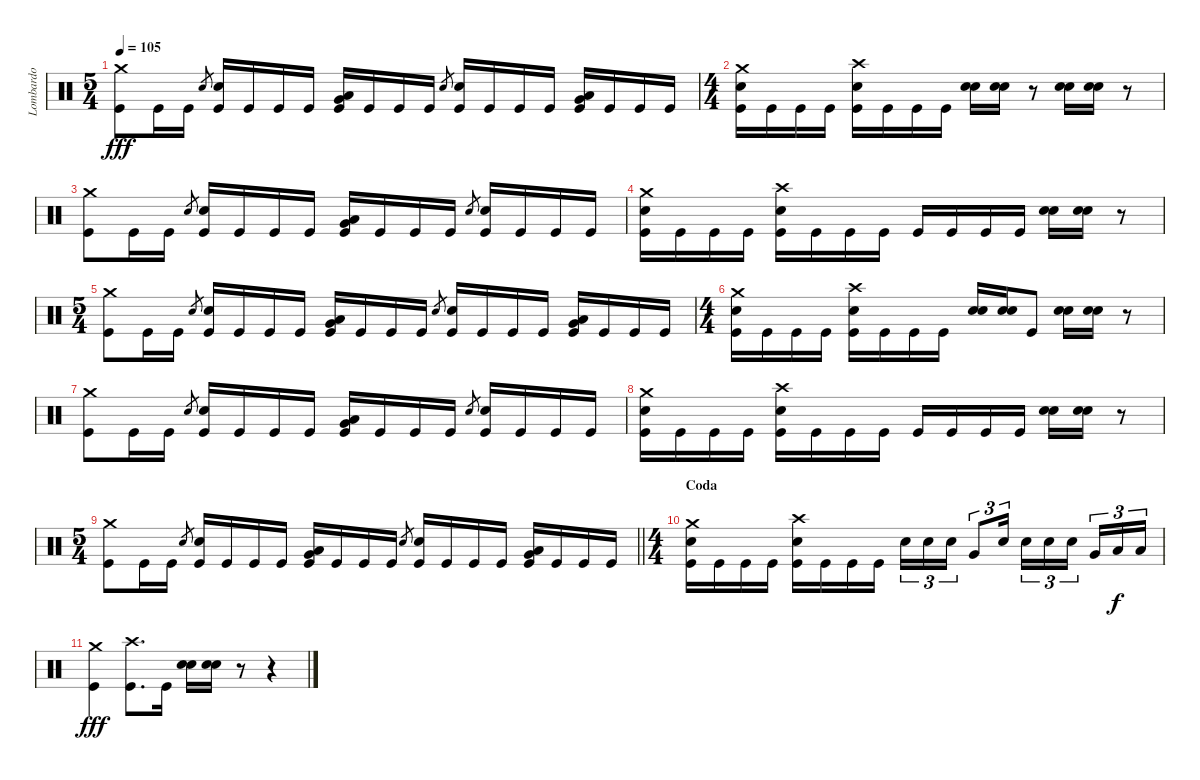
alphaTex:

\track ("Lombardo" "Lombardo") {instrument percussion}
\staff {score}
\articulation defaults
\ts (5 4)
\tempo 105
\clef neutral
\ks c
("Crash medium (hit)" "Kick (hit)").8{dy fff} "Kick (hit)".16 "Kick (hit)".16 "Electric Snare (hit)".8{gr} ("Kick (hit)" "Electric Snare (hit)").16 "Kick (hit)".16 "Kick (hit)".16 "Kick (hit)".16 ("Kick (hit)" "Very Low Tom (hit)" "Low Floor Tom (hit)").16 "Kick (hit)".16 "Kick (hit)".16 "Kick (hit)".16 "Electric Snare (hit)".8{gr} ("Kick (hit)" "Electric Snare (hit)").16 "Kick (hit)".16 "Kick (hit)".16 "Kick (hit)".16 ("Kick (hit)" "Very Low Tom (hit)" "Low Floor Tom (hit)").16 "Kick (hit)".16 "Kick (hit)".16 "Kick (hit)".16 |
\ts (4 4)
("Kick (hit)" "Crash medium (hit)" "Electric Snare (hit)").16 "Kick (hit)".16 "Kick (hit)".16 "Kick (hit)".16 ("Kick (hit)" "Crash high (hit)" "Electric Snare (hit)").16 "Kick (hit)".16 "Kick (hit)".16 "Kick (hit)".16 ("Electric Snare (hit)" "Electric Snare (hit)").16 ("Electric Snare (hit)" "Electric Snare (hit)").16 r.8 ("Electric Snare (hit)" "Electric Snare (hit)").16 ("Electric Snare (hit)" "Electric Snare (hit)").16 r.8 |
("Crash medium (hit)" "Kick (hit)").8 "Kick (hit)".16 "Kick (hit)".16 "Electric Snare (hit)".8{gr} ("Kick (hit)" "Electric Snare (hit)").16 "Kick (hit)".16 "Kick (hit)".16 "Kick (hit)".16 ("Kick (hit)" "Very Low Tom (hit)" "Low Floor Tom (hit)").16 "Kick (hit)".16 "Kick (hit)".16 "Kick (hit)".16 "Electric Snare (hit)".8{gr} ("Kick (hit)" "Electric Snare (hit)").16 "Kick (hit)".16 "Kick (hit)".16 "Kick (hit)".16 |
("Kick (hit)" "Crash medium (hit)" "Electric Snare (hit)").16 "Kick (hit)".16 "Kick (hit)".16 "Kick (hit)".16 ("Kick (hit)" "Crash high (hit)" "Electric Snare (hit)").16 "Kick (hit)".16 "Kick (hit)".16 "Kick (hit)".16 "Kick (hit)".16 "Kick (hit)".16 "Kick (hit)".16 "Kick (hit)".16 ("Electric Snare (hit)" "Electric Snare (hit)").16 ("Electric Snare (hit)" "Electric Snare (hit)").16 r.8 |
\ts (5 4)
("Kick (hit)" "Crash medium (hit)").8 "Kick (hit)".16 "Kick (hit)".16 "Electric Snare (hit)".8{gr} ("Kick (hit)" "Electric Snare (hit)").16 "Kick (hit)".16 "Kick (hit)".16 "Kick (hit)".16 ("Kick (hit)" "Very Low Tom (hit)" "Low Floor Tom (hit)").16 "Kick (hit)".16 "Kick (hit)".16 "Kick (hit)".16 "Electric Snare (hit)".8{gr} ("Kick (hit)" "Electric Snare (hit)").16 "Kick (hit)".16 "Kick (hit)".16 "Kick (hit)".16 ("Kick (hit)" "Very Low Tom (hit)" "Low Floor Tom (hit)").16 "Kick (hit)".16 "Kick (hit)".16 "Kick (hit)".16 |
\ts (4 4)
("Kick (hit)" "Crash medium (hit)" "Electric Snare (hit)").16 "Kick (hit)".16 "Kick (hit)".16 "Kick (hit)".16 ("Kick (hit)" "Crash high (hit)" "Electric Snare (hit)").16 "Kick (hit)".16 "Kick (hit)".16 "Kick (hit)".16 ("Electric Snare (hit)" "Electric Snare (hit)").16 ("Electric Snare (hit)" "Electric Snare (hit)").16 "Kick (hit)".8 ("Electric Snare (hit)" "Electric Snare (hit)").16 ("Electric Snare (hit)" "Electric Snare (hit)").16 r.8 |
("Crash medium (hit)" "Kick (hit)").8 "Kick (hit)".16 "Kick (hit)".16 "Electric Snare (hit)".8{gr} ("Kick (hit)" "Electric Snare (hit)").16 "Kick (hit)".16 "Kick (hit)".16 "Kick (hit)".16 ("Kick (hit)" "Very Low Tom (hit)" "Low Floor Tom (hit)").16 "Kick (hit)".16 "Kick (hit)".16 "Kick (hit)".16 "Electric Snare (hit)".8{gr} ("Kick (hit)" "Electric Snare (hit)").16 "Kick (hit)".16 "Kick (hit)".16 "Kick (hit)".16 |
("Kick (hit)" "Crash medium (hit)" "Electric Snare (hit)").16 "Kick (hit)".16 "Kick (hit)".16 "Kick (hit)".16 ("Kick (hit)" "Crash high (hit)" "Electric Snare (hit)").16 "Kick (hit)".16 "Kick (hit)".16 "Kick (hit)".16 "Kick (hit)".16 "Kick (hit)".16 "Kick (hit)".16 "Kick (hit)".16 ("Electric Snare (hit)" "Electric Snare (hit)").16 ("Electric Snare (hit)" "Electric Snare (hit)").16 r.8 |
\ts (5 4)
\barLineRight lightlight
("Crash medium (hit)" "Kick (hit)").8 "Kick (hit)".16 "Kick (hit)".16 "Electric Snare (hit)".8{gr} ("Kick (hit)" "Electric Snare (hit)").16 "Kick (hit)".16 "Kick (hit)".16 "Kick (hit)".16 ("Kick (hit)" "Very Low Tom (hit)" "Low Floor Tom (hit)").16 "Kick (hit)".16 "Kick (hit)".16 "Kick (hit)".16 "Electric Snare (hit)".8{gr} ("Kick (hit)" "Electric Snare (hit)").16 "Kick (hit)".16 "Kick (hit)".16 "Kick (hit)".16 ("Kick (hit)" "Very Low Tom (hit)" "Low Floor Tom (hit)").16 "Kick (hit)".16 "Kick (hit)".16 "Kick (hit)".16 |
\ts (4 4)
\section ("" "Coda")
("Kick (hit)" "Crash medium (hit)" "Electric Snare (hit)").16 "Kick (hit)".16 "Kick (hit)".16 "Kick (hit)".16 ("Kick (hit)" "Crash high (hit)" "Electric Snare (hit)").16 "Kick (hit)".16 "Kick (hit)".16 "Kick (hit)".16 "Electric Snare (hit)".16{tu (3 2)} "Electric Snare (hit)".16{tu (3 2)} "Electric Snare (hit)".16{tu (3 2)} "Very Low Tom (hit)".8{tu (3 2)} "Electric Snare (hit)".16{tu (3 2)} "Electric Snare (hit)".16{tu (3 2)} "Electric Snare (hit)".16{tu (3 2)} "Electric Snare (hit)".16{tu (3 2)} "Very Low Tom (hit)".16{tu (3 2)} "Low Floor Tom (hit)".16{tu (3 2) dy f} "Low Floor Tom (hit)".16{tu (3 2)} |
("Kick (hit)" "Crash medium (hit)").4{dy fff} ("Kick (hit)" "Crash high (hit)").8{d} "Kick (hit)".16 ("Electric Snare (hit)" "Electric Snare (hit)").16 ("Electric Snare (hit)" "Electric Snare (hit)").16 r.8 r.4
